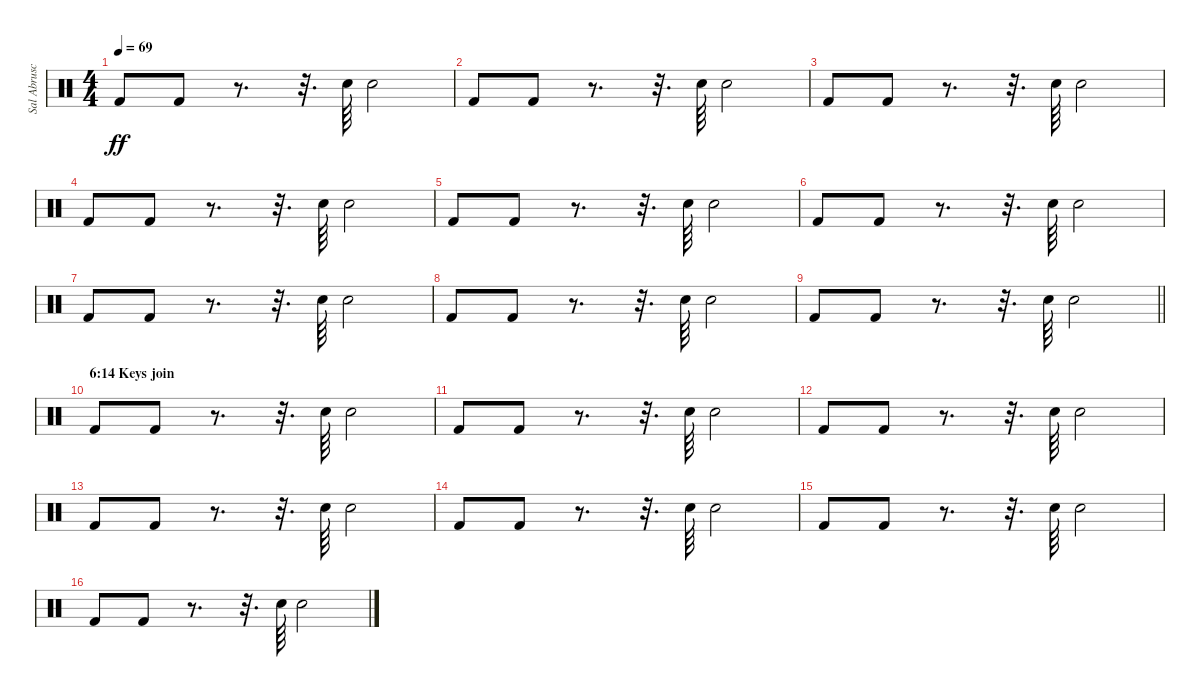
\track ("Sal Abruscato (Drums)" "Sal Abrusc") {instrument percussion}
\staff {score}
\articulation defaults
\ts (4 4)
\tempo 69
\clef neutral
\ks c "Kick (hit) 2".8{dy ff} "Kick (hit) 2".8
r.8{d} r.32{d} "Electric Snare (hit)".64 "Electric Snare (hit)".2 |
"Kick (hit) 2".8 "Kick (hit) 2".8 r.8{d} r.32{d} "Electric Snare (hit)".64 "Electric Snare (hit)".2 |
"Kick (hit) 2".8 "Kick (hit) 2".8 r.8{d} r.32{d} "Electric Snare (hit)".64 "Electric Snare (hit)".2 |
"Kick (hit) 2".8 "Kick (hit) 2".8 r.8{d} r.32{d} "Electric Snare (hit)".64 "Electric Snare (hit)".2 |
"Kick (hit) 2".8 "Kick (hit) 2".8 r.8{d} r.32{d} "Electric Snare (hit)".64 "Electric Snare (hit)".2 |
"Kick (hit) 2".8 "Kick (hit) 2".8 r.8{d} r.32{d} "Electric Snare (hit)".64 "Electric Snare (hit)".2 |
"Kick (hit) 2".8 "Kick (hit) 2".8 r.8{d} r.32{d} "Electric Snare (hit)".64 "Electric Snare (hit)".2 |
"Kick (hit) 2".8 "Kick (hit) 2".8 r.8{d} r.32{d} "Electric Snare (hit)".64 "Electric Snare (hit)".2 |
\barLineRight lightlight "Kick (hit) 2".8 "Kick (hit) 2".8
r.8{d} r.32{d} "Electric Snare (hit)".64 "Electric Snare (hit)".2 |
\section ("" "6:14 Keys join")
"Kick (hit) 2".8 "Kick (hit) 2".8 r.8{d} r.32{d} "Electric Snare (hit)".64 "Electric Snare (hit)".2 |
"Kick (hit) 2".8 "Kick (hit) 2".8 r.8{d} r.32{d} "Electric Snare (hit)".64 "Electric Snare (hit)".2 |
"Kick (hit) 2".8 "Kick (hit) 2".8 r.8{d} r.32{d} "Electric Snare (hit)".64 "Electric Snare (hit)".2 |
"Kick (hit) 2".8 "Kick (hit) 2".8 r.8{d} r.32{d} "Electric Snare (hit)".64 "Electric Snare (hit)".2 |
"Kick (hit) 2".8 "Kick (hit) 2".8 r.8{d} r.32{d} "Electric Snare (hit)".64 "Electric Snare (hit)".2 |
"Kick (hit) 2".8 "Kick (hit) 2".8 r.8{d} r.32{d} "Electric Snare (hit)".64 "Electric Snare (hit)".2 |
"Kick (hit) 2".8 "Kick (hit) 2".8 r.8{d} r.32{d} "Electric Snare (hit)".64 "Electric Snare (hit)".2
